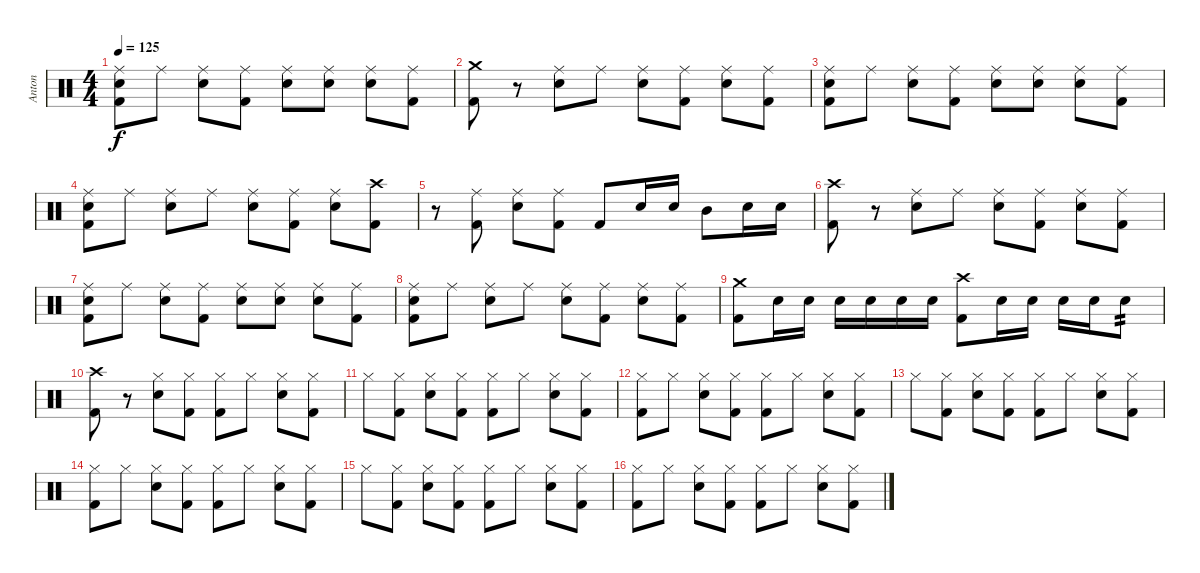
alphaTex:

\track ("Anton" "Anton") {instrument percussion}
\staff {score}
\articulation defaults
\ts (4 4)
\tempo 125
\clef neutral
\ks c
("Kick (hit) 2" "Electric Snare (hit)" "Ride (middle)").8{dy f} "Ride (middle)".8 ("Electric Snare (hit)" "Ride (middle)").8 ("Kick (hit) 2" "Ride (middle)").8 ("Electric Snare (hit)" "Ride (middle)").8 ("Electric Snare (hit)" "Ride (middle)").8 ("Electric Snare (hit)" "Ride (middle)").8 ("Kick (hit) 2" "Ride (middle)").8 |
("Kick (hit) 2" "Crash medium (hit)").8 r.8 ("Electric Snare (hit)" "Ride (middle)").8 "Ride (middle)".8 ("Electric Snare (hit)" "Ride (middle)").8 ("Kick (hit) 2" "Ride (middle)").8 ("Electric Snare (hit)" "Ride (middle)").8 ("Kick (hit) 2" "Ride (middle)").8 |
("Kick (hit) 2" "Electric Snare (hit)" "Ride (middle)").8 "Ride (middle)".8 ("Electric Snare (hit)" "Ride (middle)").8 ("Kick (hit) 2" "Ride (middle)").8 ("Electric Snare (hit)" "Ride (middle)").8 ("Electric Snare (hit)" "Ride (middle)").8 ("Electric Snare (hit)" "Ride (middle)").8 ("Kick (hit) 2" "Ride (middle)").8 |
("Kick (hit) 2" "Electric Snare (hit)" "Ride (middle)").8 "Ride (middle)".8 ("Electric Snare (hit)" "Ride (middle)").8 "Ride (middle)".8 ("Electric Snare (hit)" "Ride (middle)").8 ("Kick (hit) 2" "Ride (middle)").8 ("Electric Snare (hit)" "Ride (middle)").8 ("Kick (hit) 2" "Crash high (hit)").8 |
r.8 ("Kick (hit) 2" "Ride (middle)").8 ("Electric Snare (hit)" "Ride (middle)").8 ("Kick (hit) 2" "Ride (middle)").8 "Kick (hit) 2".8 "Electric Snare (hit)".16 "Electric Snare (hit)".16 "Mid Tom (hit)".8 "Electric Snare (hit)".16 "Electric Snare (hit)".16 |
("Kick (hit) 2" "Crash high (hit)").8 r.8 ("Electric Snare (hit)" "Ride (middle)").8 "Ride (middle)".8 ("Electric Snare (hit)" "Ride (middle)").8 ("Kick (hit) 2" "Ride (middle)").8 ("Electric Snare (hit)" "Ride (middle)").8 ("Kick (hit) 2" "Ride (middle)").8 |
("Kick (hit) 2" "Electric Snare (hit)" "Ride (middle)").8 "Ride (middle)".8 ("Electric Snare (hit)" "Ride (middle)").8 ("Kick (hit) 2" "Ride (middle)").8 ("Electric Snare (hit)" "Ride (middle)").8 ("Electric Snare (hit)" "Ride (middle)").8 ("Electric Snare (hit)" "Ride (middle)").8 ("Kick (hit) 2" "Ride (middle)").8 |
("Kick (hit) 2" "Electric Snare (hit)" "Ride (middle)").8 "Ride (middle)".8 ("Electric Snare (hit)" "Ride (middle)").8 "Ride (middle)".8 ("Electric Snare (hit)" "Ride (middle)").8 ("Kick (hit) 2" "Ride (middle)").8 ("Electric Snare (hit)" "Ride (middle)").8 ("Kick (hit) 2" "Ride (middle)").8 |
("Kick (hit) 2" "Crash medium (hit)").8 "Electric Snare (hit)".16 "Electric Snare (hit)".16 "Electric Snare (hit)".16 "Electric Snare (hit)".16 "Electric Snare (hit)".16 "Electric Snare (hit)".16 ("Kick (hit) 2" "Crash high (hit)").8 "Electric Snare (hit)".16 "Electric Snare (hit)".16 "Electric Snare (hit)".16 "Electric Snare (hit)".16 "Electric Snare (hit)".8{tp 2} |
("Kick (hit) 2" "Crash high (hit)").8 r.8 ("Electric Snare (hit)" "Hi-Hat (closed)").8 ("Kick (hit) 2" "Hi-Hat (closed)").8 ("Kick (hit) 2" "Hi-Hat (closed)").8 "Hi-Hat (closed)".8 ("Electric Snare (hit)" "Hi-Hat (closed)").8 ("Kick (hit) 2" "Hi-Hat (closed)").8 |
"Hi-Hat (closed)".8 ("Kick (hit) 2" "Hi-Hat (closed)").8 ("Electric Snare (hit)" "Hi-Hat (closed)").8 ("Kick (hit) 2" "Hi-Hat (closed)").8 ("Kick (hit) 2" "Hi-Hat (closed)").8 "Hi-Hat (closed)".8 ("Electric Snare (hit)" "Hi-Hat (closed)").8 ("Kick (hit) 2" "Hi-Hat (closed)").8 |
("Kick (hit) 2" "Hi-Hat (closed)").8 "Hi-Hat (closed)".8 ("Electric Snare (hit)" "Hi-Hat (closed)").8 ("Kick (hit) 2" "Hi-Hat (closed)").8 ("Kick (hit) 2" "Hi-Hat (closed)").8 "Hi-Hat (closed)".8 ("Electric Snare (hit)" "Hi-Hat (closed)").8 ("Kick (hit) 2" "Hi-Hat (closed)").8 |
"Hi-Hat (closed)".8 ("Kick (hit) 2" "Hi-Hat (closed)").8 ("Electric Snare (hit)" "Hi-Hat (closed)").8 ("Kick (hit) 2" "Hi-Hat (closed)").8 ("Kick (hit) 2" "Hi-Hat (closed)").8 "Hi-Hat (closed)".8 ("Electric Snare (hit)" "Hi-Hat (closed)").8 ("Kick (hit) 2" "Hi-Hat (closed)").8 |
("Kick (hit) 2" "Hi-Hat (closed)").8 "Hi-Hat (closed)".8 ("Electric Snare (hit)" "Hi-Hat (closed)").8 ("Kick (hit) 2" "Hi-Hat (closed)").8 ("Kick (hit) 2" "Hi-Hat (closed)").8 "Hi-Hat (closed)".8 ("Electric Snare (hit)" "Hi-Hat (closed)").8 ("Kick (hit) 2" "Hi-Hat (closed)").8 |
"Hi-Hat (closed)".8 ("Kick (hit) 2" "Hi-Hat (closed)").8 ("Electric Snare (hit)" "Hi-Hat (closed)").8 ("Kick (hit) 2" "Hi-Hat (closed)").8 ("Kick (hit) 2" "Hi-Hat (closed)").8 "Hi-Hat (closed)".8 ("Electric Snare (hit)" "Hi-Hat (closed)").8 ("Kick (hit) 2" "Hi-Hat (closed)").8 |
("Kick (hit) 2" "Hi-Hat (closed)").8 "Hi-Hat (closed)".8 ("Electric Snare (hit)" "Hi-Hat (closed)").8 ("Kick (hit) 2" "Hi-Hat (closed)").8 ("Kick (hit) 2" "Hi-Hat (closed)").8 "Hi-Hat (closed)".8 ("Electric Snare (hit)" "Hi-Hat (closed)").8 ("Kick (hit) 2" "Hi-Hat (closed)").8
